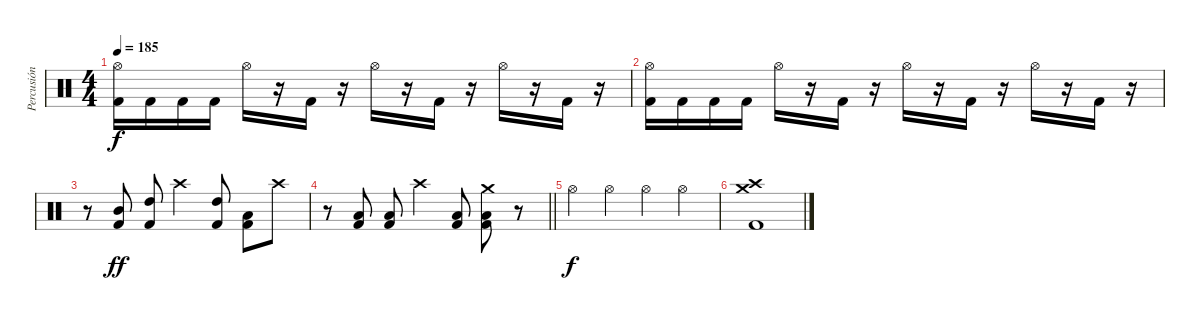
\track ("Percusión" "Percusión") {instrument percussion}
\staff {score}
\articulation defaults
\ts (4 4)
\tempo 185
\clef neutral
\ks c
("Hi-Hat (open)" "Kick (hit) 2").16{dy f} "Kick (hit) 2".16 "Kick (hit) 2".16 "Kick (hit) 2".16 "Hi-Hat (open)".16 r.16 "Kick (hit) 2".16 r.16 "Hi-Hat (open)".16 r.16 "Kick (hit) 2".16 r.16 "Hi-Hat (open)".16 r.16 "Kick (hit) 2".16 r.16 |
("Hi-Hat (open)" "Kick (hit) 2").16 "Kick (hit) 2".16 "Kick (hit) 2".16 "Kick (hit) 2".16 "Hi-Hat (open)".16 r.16 "Kick (hit) 2".16 r.16 "Hi-Hat (open)".16 r.16 "Kick (hit) 2".16 r.16 "Hi-Hat (open)".16 r.16 "Kick (hit) 2".16 r.16 |
r.8 ("Mid Tom (hit)" "Kick (hit) 2").8{dy ff} ("High Tom (hit)" "Kick (hit) 2").8 "Crash high (hit)".4 ("High Tom (hit)" "Kick (hit) 2").8 ("Low Tom (hit)" "Kick (hit) 2").8 "Crash high (hit)".8 |
\barLineRight lightlight
r.8 ("Low Tom (hit)" "Kick (hit) 2").8 ("Low Floor Tom (hit)" "Kick (hit) 2").8 "Crash high (hit)".4 ("Low Floor Tom (hit)" "Kick (hit) 2").8 ("Crash medium (hit)" "Low Tom (hit)" "Kick (hit) 2").8 r.8 |
"Hi-Hat (open)".4{dy f} "Hi-Hat (open)".4 "Hi-Hat (open)".4 "Hi-Hat (open)".4 |
("Crash high (hit)" "Crash medium (hit)" "Kick (hit) 2").1
